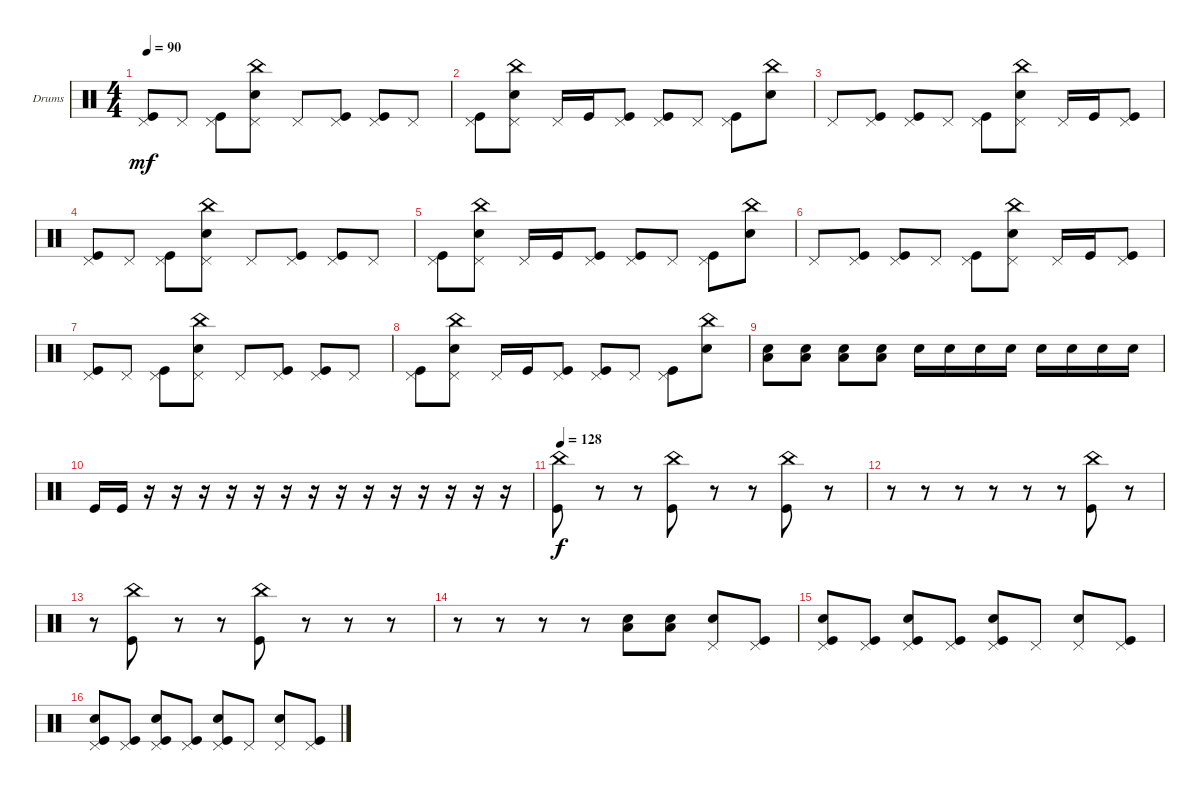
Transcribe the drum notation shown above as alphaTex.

\defaultSystemsLayout 4
\bracketExtendMode groupsimilarinstruments
\firstSystemTrackNameOrientation horizontal
\otherSystemsTrackNameOrientation horizontal
\track ("Drumkit" "Drums") {instrument percussion}
\staff {score}
\articulation defaults
\ts (4 4)
\tempo 90
\clef neutral
\ks c
("Kick (hit)" "Pedal Hi-Hat (hit)").8{dy mf} "Pedal Hi-Hat (hit)".8 ("Pedal Hi-Hat (hit)" "Kick (hit)").8 ("Pedal Hi-Hat (hit)" "Snare (hit) 2" "China (hit)").8 "Pedal Hi-Hat (hit)".8 ("Pedal Hi-Hat (hit)" "Kick (hit)").8 ("Pedal Hi-Hat (hit)" "Kick (hit)").8 "Pedal Hi-Hat (hit)".8 |
("Pedal Hi-Hat (hit)" "Kick (hit)").8 ("Pedal Hi-Hat (hit)" "Snare (hit) 2" "China (hit)").8 "Pedal Hi-Hat (hit)".16 "Kick (hit)".16 ("Pedal Hi-Hat (hit)" "Kick (hit)").8 ("Pedal Hi-Hat (hit)" "Kick (hit)").8 "Pedal Hi-Hat (hit)".8 ("Pedal Hi-Hat (hit)" "Kick (hit)").8 ("Snare (hit) 2" "China (hit)").8 |
"Pedal Hi-Hat (hit)".8 ("Pedal Hi-Hat (hit)" "Kick (hit)").8 ("Pedal Hi-Hat (hit)" "Kick (hit)").8 "Pedal Hi-Hat (hit)".8 ("Pedal Hi-Hat (hit)" "Kick (hit)").8 ("Pedal Hi-Hat (hit)" "Snare (hit) 2" "China (hit)").8 "Pedal Hi-Hat (hit)".16 "Kick (hit)".16 ("Pedal Hi-Hat (hit)" "Kick (hit)").8 |
("Kick (hit)" "Pedal Hi-Hat (hit)").8 "Pedal Hi-Hat (hit)".8 ("Pedal Hi-Hat (hit)" "Kick (hit)").8 ("Pedal Hi-Hat (hit)" "Snare (hit) 2" "China (hit)").8 "Pedal Hi-Hat (hit)".8 ("Pedal Hi-Hat (hit)" "Kick (hit)").8 ("Pedal Hi-Hat (hit)" "Kick (hit)").8 "Pedal Hi-Hat (hit)".8 |
("Pedal Hi-Hat (hit)" "Kick (hit)").8 ("Pedal Hi-Hat (hit)" "Snare (hit) 2" "China (hit)").8 "Pedal Hi-Hat (hit)".16 "Kick (hit)".16 ("Pedal Hi-Hat (hit)" "Kick (hit)").8 ("Pedal Hi-Hat (hit)" "Kick (hit)").8 "Pedal Hi-Hat (hit)".8 ("Pedal Hi-Hat (hit)" "Kick (hit)").8 ("Snare (hit) 2" "China (hit)").8 |
"Pedal Hi-Hat (hit)".8 ("Pedal Hi-Hat (hit)" "Kick (hit)").8 ("Pedal Hi-Hat (hit)" "Kick (hit)").8 "Pedal Hi-Hat (hit)".8 ("Pedal Hi-Hat (hit)" "Kick (hit)").8 ("Pedal Hi-Hat (hit)" "Snare (hit) 2" "China (hit)").8 "Pedal Hi-Hat (hit)".16 "Kick (hit)".16 ("Pedal Hi-Hat (hit)" "Kick (hit)").8 |
("Kick (hit)" "Pedal Hi-Hat (hit)").8 "Pedal Hi-Hat (hit)".8 ("Pedal Hi-Hat (hit)" "Kick (hit)").8 ("Pedal Hi-Hat (hit)" "Snare (hit) 2" "China (hit)").8 "Pedal Hi-Hat (hit)".8 ("Pedal Hi-Hat (hit)" "Kick (hit)").8 ("Pedal Hi-Hat (hit)" "Kick (hit)").8 "Pedal Hi-Hat (hit)".8 |
("Pedal Hi-Hat (hit)" "Kick (hit)").8 ("Pedal Hi-Hat (hit)" "Snare (hit) 2" "China (hit)").8 "Pedal Hi-Hat (hit)".16 "Kick (hit)".16 ("Pedal Hi-Hat (hit)" "Kick (hit)").8 ("Pedal Hi-Hat (hit)" "Kick (hit)").8 "Pedal Hi-Hat (hit)".8 ("Pedal Hi-Hat (hit)" "Kick (hit)").8 ("Snare (hit) 2" "China (hit)").8 |
("Low Tom (hit)" "Snare (hit) 2").8 ("Low Tom (hit)" "Snare (hit) 2").8 ("Snare (hit) 2" "Low Tom (hit)").8 ("Low Tom (hit)" "Snare (hit) 2").8 "Snare (hit) 2".16 "Snare (hit) 2".16 "Snare (hit) 2".16 "Snare (hit) 2".16 "Snare (hit) 2".16 "Snare (hit) 2".16 "Snare (hit) 2".16 "Snare (hit) 2".16 |
"Kick (hit)".16 "Kick (hit)".16 r.16 r.16 r.16 r.16 r.16 r.16 r.16 r.16 r.16 r.16 r.16 r.16 r.16 r.16 |
\tempo 128
("Kick (hit)" "China (hit)").8{dy f} r.8 r.8 ("China (hit)" "Kick (hit)").8 r.8 r.8 ("China (hit)" "Kick (hit)").8 r.8 |
r.8 r.8 r.8 r.8 r.8 r.8 ("China (hit)" "Kick (hit)").8 r.8 |
r.8 ("China (hit)" "Kick (hit)").8 r.8 r.8 ("China (hit)" "Kick (hit)").8 r.8 r.8 r.8 |
r.8 r.8 r.8 r.8 ("Low Tom (hit)" "Snare (hit) 2").8 ("Low Tom (hit)" "Snare (hit) 2").8 ("Snare (hit) 2" "Pedal Hi-Hat (hit)").8 ("Kick (hit)" "Pedal Hi-Hat (hit)").8 |
("Pedal Hi-Hat (hit)" "Kick (hit)" "Snare (hit) 2").8 ("Pedal Hi-Hat (hit)" "Kick (hit)").8 ("Pedal Hi-Hat (hit)" "Kick (hit)" "Snare (hit) 2").8 ("Pedal Hi-Hat (hit)" "Kick (hit)").8 ("Pedal Hi-Hat (hit)" "Kick (hit)" "Snare (hit) 2").8 "Pedal Hi-Hat (hit)".8 ("Pedal Hi-Hat (hit)" "Snare (hit) 2").8 ("Pedal Hi-Hat (hit)" "Kick (hit)").8 |
("Pedal Hi-Hat (hit)" "Kick (hit)" "Snare (hit) 2").8 ("Pedal Hi-Hat (hit)" "Kick (hit)").8 ("Pedal Hi-Hat (hit)" "Kick (hit)" "Snare (hit) 2").8 ("Pedal Hi-Hat (hit)" "Kick (hit)").8 ("Pedal Hi-Hat (hit)" "Kick (hit)" "Snare (hit) 2").8 "Pedal Hi-Hat (hit)".8 ("Pedal Hi-Hat (hit)" "Snare (hit) 2").8 ("Pedal Hi-Hat (hit)" "Kick (hit)").8
